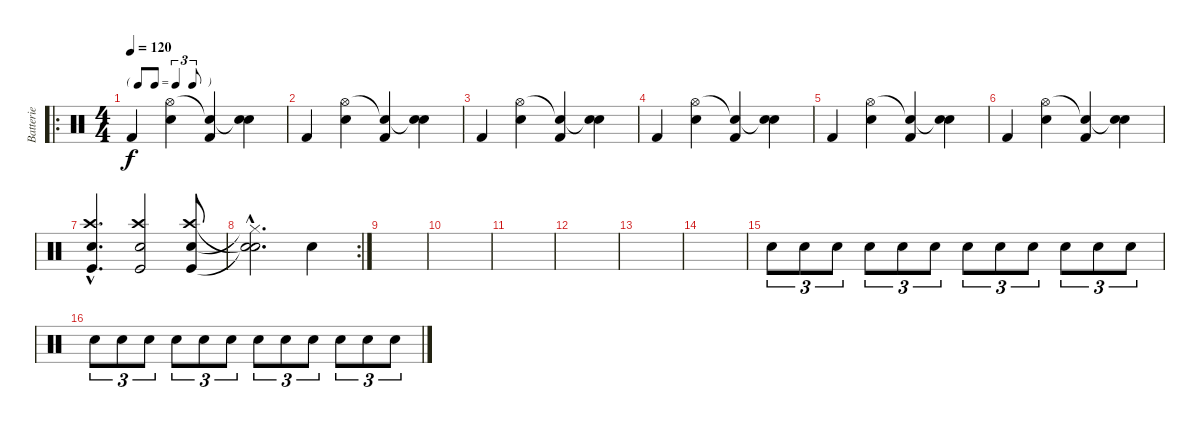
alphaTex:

\track ("Batterie" "Batterie") {instrument percussion}
\staff {score}
\articulation defaults
\ro
\ts (4 4)
\tf triplet8th
\tempo 120
\clef neutral
\ks c "Kick (hit) 2".4{dy f}
("Hi-Hat (open)" "Snare (hit) 2").4 ("Snare (hit)"{t} "Kick (hit) 2").4 ("Snare (hit)"{t} "Snare (hit) 2").4 |
"Kick (hit) 2".4 ("Hi-Hat (open)" "Snare (hit) 2").4 ("Snare (hit)"{t} "Kick (hit) 2").4 ("Snare (hit)"{t} "Snare (hit) 2").4 |
"Kick (hit) 2".4 ("Hi-Hat (open)" "Snare (hit) 2").4 ("Snare (hit)"{t} "Kick (hit) 2").4 ("Snare (hit)"{t} "Snare (hit) 2").4 |
"Kick (hit) 2".4 ("Hi-Hat (open)" "Snare (hit) 2").4 ("Snare (hit)"{t} "Kick (hit) 2").4 ("Snare (hit)"{t} "Snare (hit) 2").4 |
"Kick (hit) 2".4 ("Hi-Hat (open)" "Snare (hit) 2").4 ("Snare (hit)"{t} "Kick (hit) 2").4 ("Snare (hit)"{t} "Snare (hit) 2").4 |
"Kick (hit) 2".4 ("Hi-Hat (open)" "Snare (hit) 2").4 ("Snare (hit)"{t} "Kick (hit) 2").4 ("Snare (hit)"{t} "Snare (hit) 2").4 |
("Crash high (hit)"{hac} "Snare (hit) 2"{hac} "Kick (hit)"{hac}).4{d} ("Crash high (hit)" "Snare (hit) 2" "Kick (hit)").2 ("Crash high (hit)" "Snare (hit) 2" "Kick (hit)").8 |
\rc 2
("Snare (hit)"{hac t} "Hi-Hat (closed)"{hac t} "Snare (hit)"{hac t}).2{d} "Snare (hit) 2".4 |
|
|
|
|
|
|
"Snare (hit) 2".8{tu (3 2) volume 0} "Snare (hit) 2".8{tu (3 2) volume 6} "Snare (hit) 2".8{tu (3 2)} "Snare (hit) 2".8{tu (3 2)} "Snare (hit) 2".8{tu (3 2)} "Snare (hit) 2".8{tu (3 2)} "Snare (hit) 2".8{tu (3 2)} "Snare (hit) 2".8{tu (3 2)} "Snare (hit) 2".8{tu (3 2)} "Snare (hit) 2".8{tu (3 2)} "Snare (hit) 2".8{tu (3 2)} "Snare (hit) 2".8{tu (3 2)} |
"Snare (hit) 2".8{tu (3 2)} "Snare (hit) 2".8{tu (3 2)} "Snare (hit) 2".8{tu (3 2)} "Snare (hit) 2".8{tu (3 2)} "Snare (hit) 2".8{tu (3 2)} "Snare (hit) 2".8{tu (3 2)} "Snare (hit) 2".8{tu (3 2)} "Snare (hit) 2".8{tu (3 2)} "Snare (hit) 2".8{tu (3 2)} "Snare (hit) 2".8{tu (3 2)} "Snare (hit) 2".8{tu (3 2)} "Snare (hit) 2".8{tu (3 2)}
